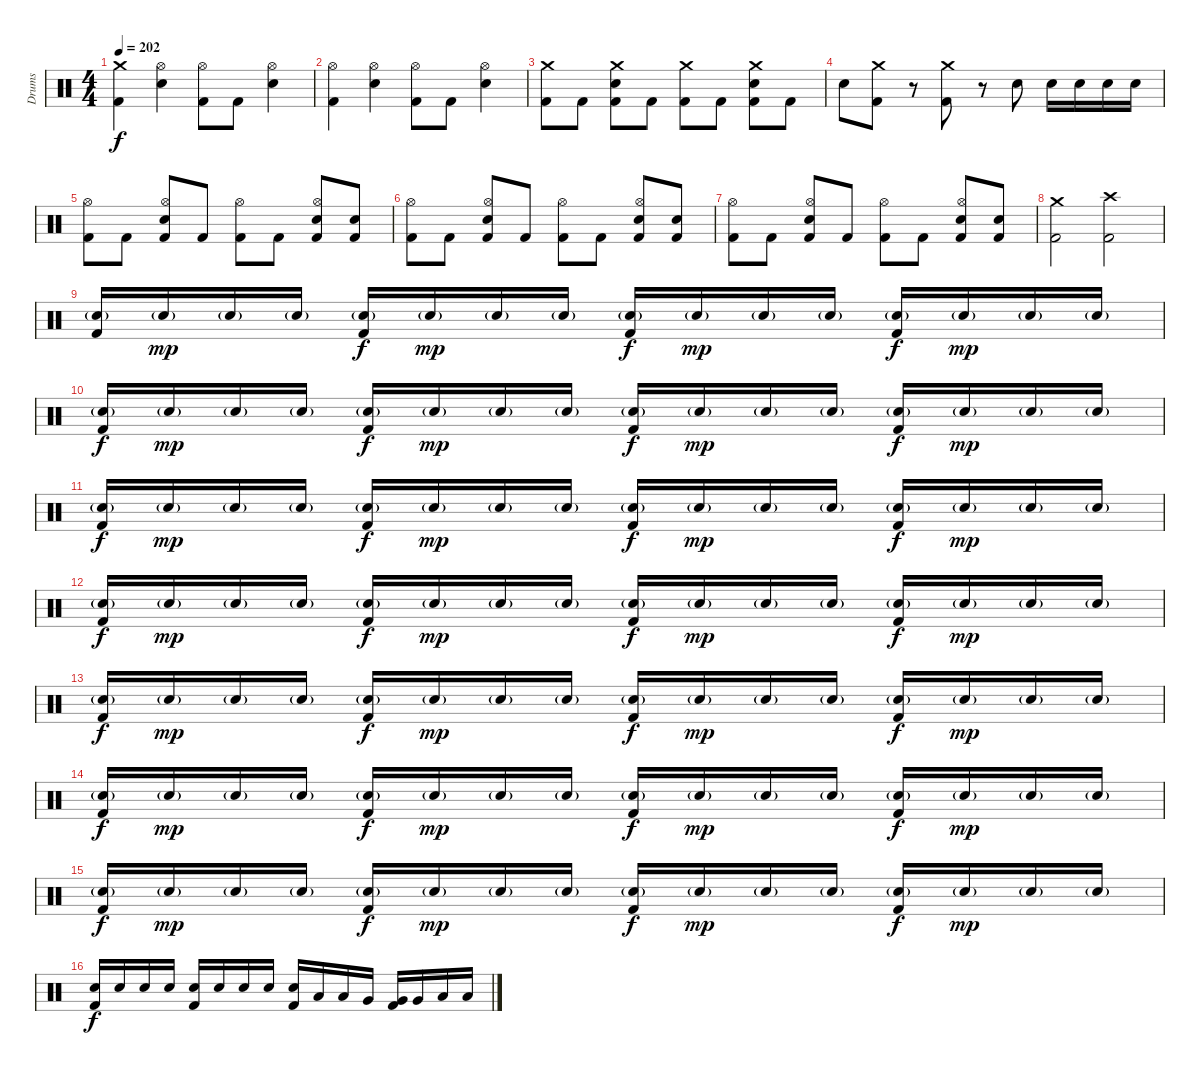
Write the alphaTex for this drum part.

\track ("Drums" "Drums") {instrument percussion}
\staff {score}
\articulation defaults
\ts (4 4)
\tempo 202
\clef neutral
\ks c
("Crash medium (hit)" "Kick (hit) 2").4{dy f} ("Hi-Hat (open)" "Electric Snare (hit)").4 ("Hi-Hat (open)" "Kick (hit) 2").8 "Kick (hit) 2".8 ("Hi-Hat (open)" "Electric Snare (hit)").4 |
("Hi-Hat (open)" "Kick (hit) 2").4 ("Hi-Hat (open)" "Electric Snare (hit)").4 ("Hi-Hat (open)" "Kick (hit) 2").8 "Kick (hit) 2".8 ("Hi-Hat (open)" "Electric Snare (hit)").4 |
("Crash medium (hit)" "Kick (hit) 2").8 "Kick (hit) 2".8 ("Crash medium (hit)" "Electric Snare (hit)" "Kick (hit) 2").8 "Kick (hit) 2".8 ("Crash medium (hit)" "Kick (hit) 2").8 "Kick (hit) 2".8 ("Crash medium (hit)" "Electric Snare (hit)" "Kick (hit) 2").8 "Kick (hit) 2".8 |
"Electric Snare (hit)".8 ("Crash medium (hit)" "Kick (hit) 2").8 r.8 ("Crash medium (hit)" "Kick (hit) 2").8 r.8 "Electric Snare (hit)".8 "Electric Snare (hit)".16 "Electric Snare (hit)".16 "Electric Snare (hit)".16 "Electric Snare (hit)".16 |
("Hi-Hat (open)" "Kick (hit) 2").8 "Kick (hit) 2".8 ("Hi-Hat (open)" "Electric Snare (hit)" "Kick (hit) 2").8 "Kick (hit) 2".8 ("Hi-Hat (open)" "Kick (hit) 2").8 "Kick (hit) 2".8 ("Hi-Hat (open)" "Electric Snare (hit)" "Kick (hit) 2").8 ("Electric Snare (hit)" "Kick (hit) 2").8 |
("Hi-Hat (open)" "Kick (hit) 2").8 "Kick (hit) 2".8 ("Hi-Hat (open)" "Electric Snare (hit)" "Kick (hit) 2").8 "Kick (hit) 2".8 ("Hi-Hat (open)" "Kick (hit) 2").8 "Kick (hit) 2".8 ("Hi-Hat (open)" "Electric Snare (hit)" "Kick (hit) 2").8 ("Electric Snare (hit)" "Kick (hit) 2").8 |
("Hi-Hat (open)" "Kick (hit) 2").8 "Kick (hit) 2".8 ("Hi-Hat (open)" "Electric Snare (hit)" "Kick (hit) 2").8 "Kick (hit) 2".8 ("Hi-Hat (open)" "Kick (hit) 2").8 "Kick (hit) 2".8 ("Hi-Hat (open)" "Electric Snare (hit)" "Kick (hit) 2").8 ("Electric Snare (hit)" "Kick (hit) 2").8 |
("Crash medium (hit)" "Kick (hit) 2").2 ("Crash high (hit)" "Kick (hit) 2").2 |
("Snare (hit) 2"{g} "Kick (hit) 2").16 "Snare (hit) 2"{g}.16{dy mp} "Snare (hit) 2"{g}.16 "Snare (hit) 2"{g}.16 ("Snare (hit) 2"{g} "Kick (hit) 2").16{dy f} "Snare (hit) 2"{g}.16{dy mp} "Snare (hit) 2"{g}.16 "Snare (hit) 2"{g}.16 ("Snare (hit) 2"{g} "Kick (hit) 2").16{dy f} "Snare (hit) 2"{g}.16{dy mp} "Snare (hit) 2"{g}.16 "Snare (hit) 2"{g}.16 ("Snare (hit) 2"{g} "Kick (hit) 2").16{dy f} "Snare (hit) 2"{g}.16{dy mp} "Snare (hit) 2"{g}.16 "Snare (hit) 2"{g}.16 |
("Snare (hit) 2"{g} "Kick (hit) 2").16{dy f} "Snare (hit) 2"{g}.16{dy mp} "Snare (hit) 2"{g}.16 "Snare (hit) 2"{g}.16 ("Snare (hit) 2"{g} "Kick (hit) 2").16{dy f} "Snare (hit) 2"{g}.16{dy mp} "Snare (hit) 2"{g}.16 "Snare (hit) 2"{g}.16 ("Snare (hit) 2"{g} "Kick (hit) 2").16{dy f} "Snare (hit) 2"{g}.16{dy mp} "Snare (hit) 2"{g}.16 "Snare (hit) 2"{g}.16 ("Snare (hit) 2"{g} "Kick (hit) 2").16{dy f} "Snare (hit) 2"{g}.16{dy mp} "Snare (hit) 2"{g}.16 "Snare (hit) 2"{g}.16 |
("Snare (hit) 2"{g} "Kick (hit) 2").16{dy f} "Snare (hit) 2"{g}.16{dy mp} "Snare (hit) 2"{g}.16 "Snare (hit) 2"{g}.16 ("Snare (hit) 2"{g} "Kick (hit) 2").16{dy f} "Snare (hit) 2"{g}.16{dy mp} "Snare (hit) 2"{g}.16 "Snare (hit) 2"{g}.16 ("Snare (hit) 2"{g} "Kick (hit) 2").16{dy f} "Snare (hit) 2"{g}.16{dy mp} "Snare (hit) 2"{g}.16 "Snare (hit) 2"{g}.16 ("Snare (hit) 2"{g} "Kick (hit) 2").16{dy f} "Snare (hit) 2"{g}.16{dy mp} "Snare (hit) 2"{g}.16 "Snare (hit) 2"{g}.16 |
("Snare (hit) 2"{g} "Kick (hit) 2").16{dy f} "Snare (hit) 2"{g}.16{dy mp} "Snare (hit) 2"{g}.16 "Snare (hit) 2"{g}.16 ("Snare (hit) 2"{g} "Kick (hit) 2").16{dy f} "Snare (hit) 2"{g}.16{dy mp} "Snare (hit) 2"{g}.16 "Snare (hit) 2"{g}.16 ("Snare (hit) 2"{g} "Kick (hit) 2").16{dy f} "Snare (hit) 2"{g}.16{dy mp} "Snare (hit) 2"{g}.16 "Snare (hit) 2"{g}.16 ("Snare (hit) 2"{g} "Kick (hit) 2").16{dy f} "Snare (hit) 2"{g}.16{dy mp} "Snare (hit) 2"{g}.16 "Snare (hit) 2"{g}.16 |
("Snare (hit) 2"{g} "Kick (hit) 2").16{dy f} "Snare (hit) 2"{g}.16{dy mp} "Snare (hit) 2"{g}.16 "Snare (hit) 2"{g}.16 ("Snare (hit) 2"{g} "Kick (hit) 2").16{dy f} "Snare (hit) 2"{g}.16{dy mp} "Snare (hit) 2"{g}.16 "Snare (hit) 2"{g}.16 ("Snare (hit) 2"{g} "Kick (hit) 2").16{dy f} "Snare (hit) 2"{g}.16{dy mp} "Snare (hit) 2"{g}.16 "Snare (hit) 2"{g}.16 ("Snare (hit) 2"{g} "Kick (hit) 2").16{dy f} "Snare (hit) 2"{g}.16{dy mp} "Snare (hit) 2"{g}.16 "Snare (hit) 2"{g}.16 |
("Snare (hit) 2"{g} "Kick (hit) 2").16{dy f} "Snare (hit) 2"{g}.16{dy mp} "Snare (hit) 2"{g}.16 "Snare (hit) 2"{g}.16 ("Snare (hit) 2"{g} "Kick (hit) 2").16{dy f} "Snare (hit) 2"{g}.16{dy mp} "Snare (hit) 2"{g}.16 "Snare (hit) 2"{g}.16 ("Snare (hit) 2"{g} "Kick (hit) 2").16{dy f} "Snare (hit) 2"{g}.16{dy mp} "Snare (hit) 2"{g}.16 "Snare (hit) 2"{g}.16 ("Snare (hit) 2"{g} "Kick (hit) 2").16{dy f} "Snare (hit) 2"{g}.16{dy mp} "Snare (hit) 2"{g}.16 "Snare (hit) 2"{g}.16 |
("Snare (hit) 2"{g} "Kick (hit) 2").16{dy f} "Snare (hit) 2"{g}.16{dy mp} "Snare (hit) 2"{g}.16 "Snare (hit) 2"{g}.16 ("Snare (hit) 2"{g} "Kick (hit) 2").16{dy f} "Snare (hit) 2"{g}.16{dy mp} "Snare (hit) 2"{g}.16 "Snare (hit) 2"{g}.16 ("Snare (hit) 2"{g} "Kick (hit) 2").16{dy f} "Snare (hit) 2"{g}.16{dy mp} "Snare (hit) 2"{g}.16 "Snare (hit) 2"{g}.16 ("Snare (hit) 2"{g} "Kick (hit) 2").16{dy f} "Snare (hit) 2"{g}.16{dy mp} "Snare (hit) 2"{g}.16 "Snare (hit) 2"{g}.16 |
("Electric Snare (hit)" "Kick (hit) 2").16{dy f} "Electric Snare (hit)".16 "Electric Snare (hit)".16 "Electric Snare (hit)".16 ("Electric Snare (hit)" "Kick (hit) 2").16 "Electric Snare (hit)".16 "Electric Snare (hit)".16 "Electric Snare (hit)".16 ("Electric Snare (hit)" "Kick (hit) 2").16 "Low Tom (hit)".16 "Low Tom (hit)".16 "Very Low Tom (hit)".16 ("Very Low Tom (hit)" "Kick (hit) 2").16 "Very Low Tom (hit)".16 "Low Floor Tom (hit)".16 "Low Floor Tom (hit)".16
